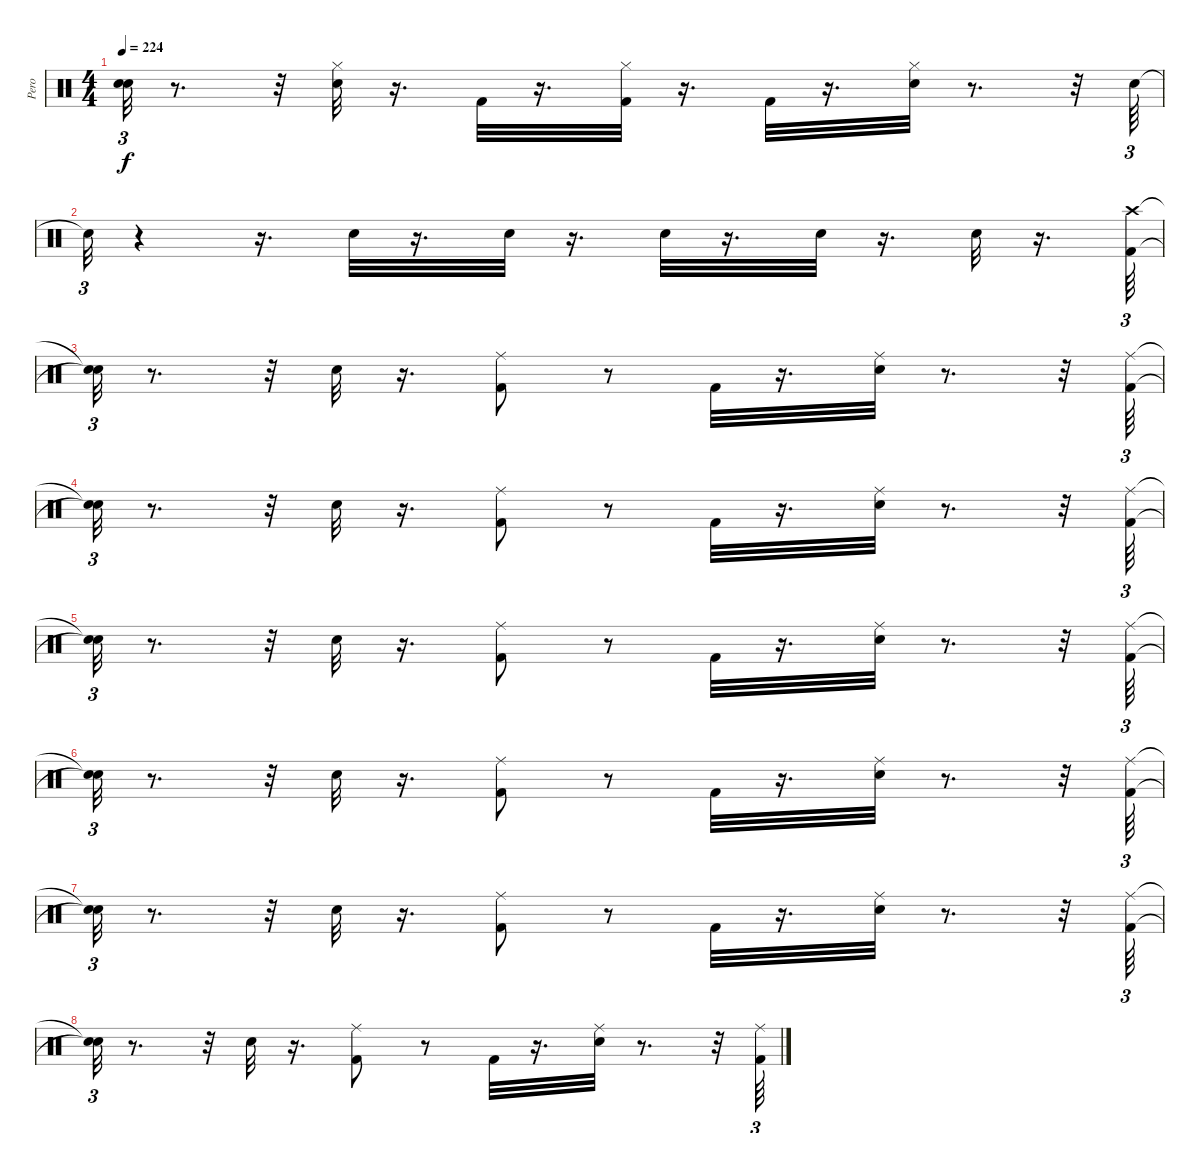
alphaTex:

\track ("Pero" "Pero") {instrument percussion}
\staff {score}
\articulation defaults
\ts (4 4)
\tempo 224
\clef neutral
\ks c
("Snare (hit)"{t} "Snare (hit)"{t}).32{tu (3 2) dy f} r.8{d} r.32 ("Hi-Hat (closed)" "Snare (hit) 2").32 r.16{d} "Kick (hit) 2".32 r.16{d} ("Hi-Hat (closed)" "Kick (hit) 2").32 r.16{d} "Kick (hit) 2".32 r.16{d} ("Hi-Hat (closed)" "Snare (hit) 2").32 r.8{d} r.32 "Snare (hit) 2".64{tu (3 2)} |
"Snare (hit)"{t}.32{tu (3 2)} r.4 r.16{d} "Snare (hit) 2".32 r.16{d} "Snare (hit) 2".32 r.16{d} "Snare (hit) 2".32 r.16{d} "Snare (hit) 2".32 r.16{d} "Snare (hit) 2".32 r.16{d} ("Crash high (hit)" "Kick (hit) 2").64{tu (3 2)} |
("Snare (hit)"{t} "Snare (hit)"{t}).32{tu (3 2)} r.8{d} r.32 "Snare (hit) 2".32 r.16{d} ("Ride (middle)" "Kick (hit) 2").8 r.8 "Kick (hit) 2".32 r.16{d} ("Snare (hit) 2" "Ride (middle)").32 r.8{d} r.32 ("Ride (middle)" "Kick (hit) 2").64{tu (3 2)} |
("Snare (hit)"{t} "Snare (hit)"{t}).32{tu (3 2)} r.8{d} r.32 "Snare (hit) 2".32 r.16{d} ("Ride (middle)" "Kick (hit) 2").8 r.8 "Kick (hit) 2".32 r.16{d} ("Snare (hit) 2" "Ride (middle)").32 r.8{d} r.32 ("Ride (middle)" "Kick (hit) 2").64{tu (3 2)} |
("Snare (hit)"{t} "Snare (hit)"{t}).32{tu (3 2)} r.8{d} r.32 "Snare (hit) 2".32 r.16{d} ("Ride (middle)" "Kick (hit) 2").8 r.8 "Kick (hit) 2".32 r.16{d} ("Snare (hit) 2" "Ride (middle)").32 r.8{d} r.32 ("Ride (middle)" "Kick (hit) 2").64{tu (3 2)} |
("Snare (hit)"{t} "Snare (hit)"{t}).32{tu (3 2)} r.8{d} r.32 "Snare (hit) 2".32 r.16{d} ("Ride (middle)" "Kick (hit) 2").8 r.8 "Kick (hit) 2".32 r.16{d} ("Snare (hit) 2" "Ride (middle)").32 r.8{d} r.32 ("Ride (middle)" "Kick (hit) 2").64{tu (3 2)} |
("Snare (hit)"{t} "Snare (hit)"{t}).32{tu (3 2)} r.8{d} r.32 "Snare (hit) 2".32 r.16{d} ("Ride (middle)" "Kick (hit) 2").8 r.8 "Kick (hit) 2".32 r.16{d} ("Snare (hit) 2" "Ride (middle)").32 r.8{d} r.32 ("Ride (middle)" "Kick (hit) 2").64{tu (3 2)} |
("Snare (hit)"{t} "Snare (hit)"{t}).32{tu (3 2)} r.8{d} r.32 "Snare (hit) 2".32 r.16{d} ("Ride (middle)" "Kick (hit) 2").8 r.8 "Kick (hit) 2".32 r.16{d} ("Snare (hit) 2" "Ride (middle)").32 r.8{d} r.32 ("Ride (middle)" "Kick (hit) 2").64{tu (3 2)}
